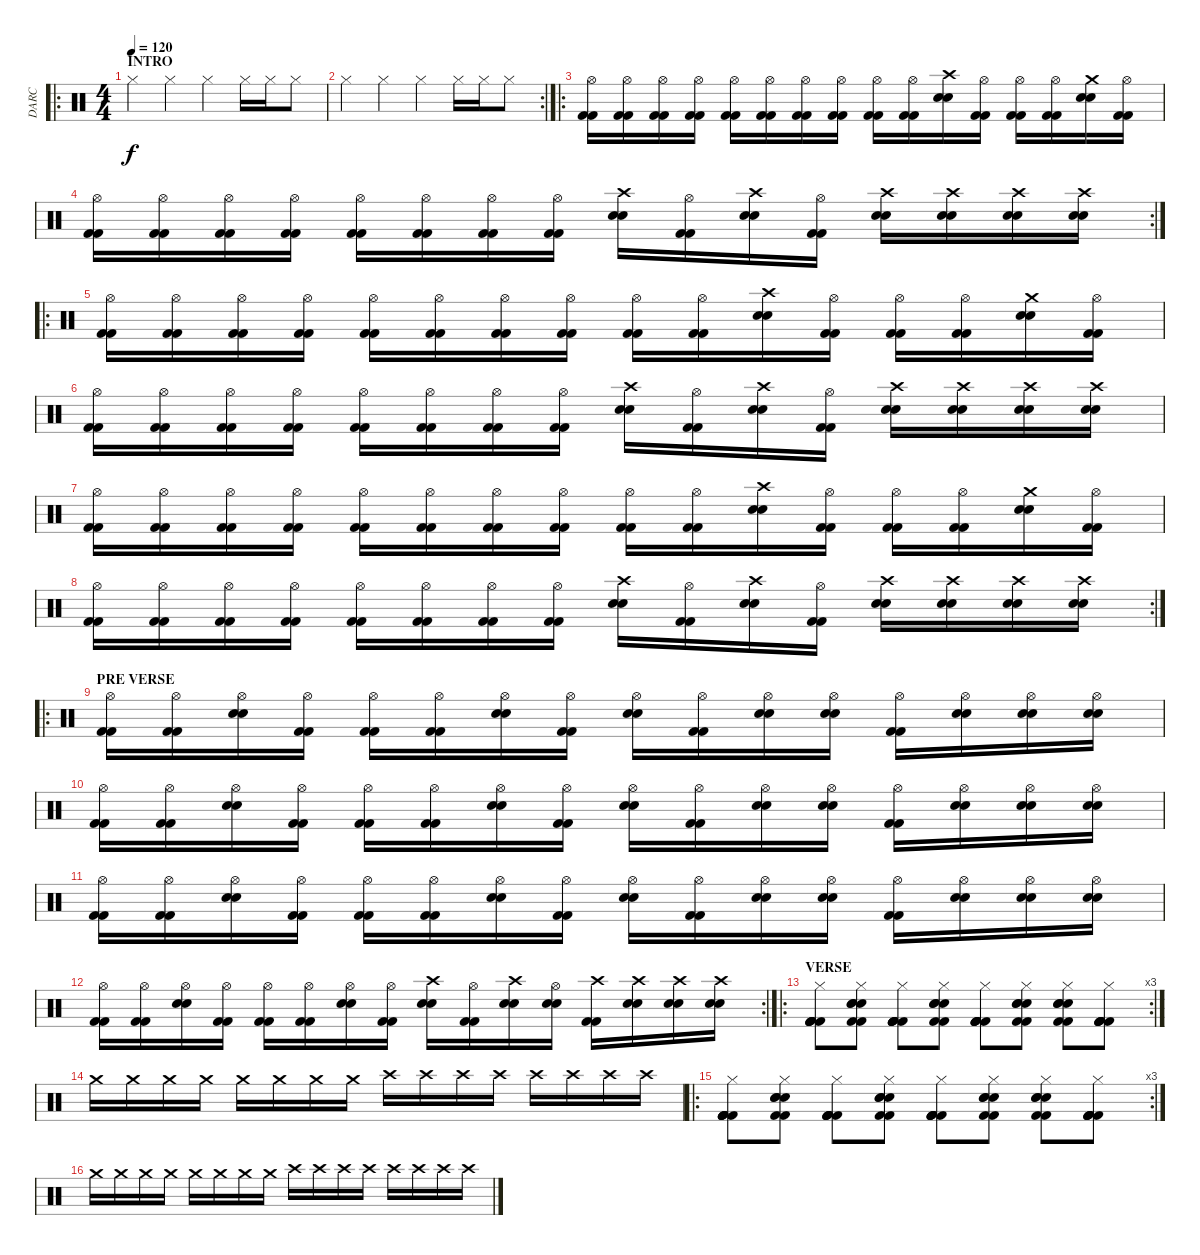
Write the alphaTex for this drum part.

\track ("DARC" "DARC") {instrument percussion}
\staff {score}
\articulation defaults
\ro
\ts (4 4)
\section ("" "INTRO")
\tempo 120
\clef neutral
\ks c "Hi-Hat (closed)".4{dy f} "Hi-Hat (closed)".4 "Hi-Hat (closed)".4 "Hi-Hat (closed)".16 "Hi-Hat (closed)".16 "Hi-Hat (closed)".8
|
\rc 2 "Hi-Hat (closed)".4 "Hi-Hat (closed)".4 "Hi-Hat (closed)".4 "Hi-Hat (closed)".16 "Hi-Hat (closed)".16 "Hi-Hat (closed)".8
|
\ro
("Hi-Hat (open)" "Kick (hit) 2" "Kick (hit) 2").16 ("Hi-Hat (open)" "Kick (hit) 2" "Kick (hit) 2").16 ("Hi-Hat (open)" "Kick (hit) 2" "Kick (hit) 2").16 ("Hi-Hat (open)" "Kick (hit) 2" "Kick (hit) 2").16 ("Hi-Hat (open)" "Kick (hit) 2" "Kick (hit) 2").16 ("Hi-Hat (open)" "Kick (hit) 2" "Kick (hit) 2").16 ("Hi-Hat (open)" "Kick (hit) 2" "Kick (hit) 2").16 ("Hi-Hat (open)" "Kick (hit) 2" "Kick (hit) 2").16 ("Hi-Hat (open)" "Kick (hit) 2" "Kick (hit) 2").16 ("Hi-Hat (open)" "Kick (hit) 2" "Kick (hit) 2").16 ("Crash high (hit)" "Snare (hit) 2" "Snare (hit) 2").16 ("Hi-Hat (open)" "Kick (hit) 2" "Kick (hit) 2").16 ("Hi-Hat (open)" "Kick (hit) 2" "Kick (hit) 2").16 ("Hi-Hat (open)" "Kick (hit) 2" "Kick (hit) 2").16 ("Crash medium (hit)" "Snare (hit) 2" "Snare (hit) 2").16 ("Hi-Hat (open)" "Kick (hit) 2" "Kick (hit) 2").16 |
\rc 2
("Hi-Hat (open)" "Kick (hit) 2" "Kick (hit) 2").16 ("Hi-Hat (open)" "Kick (hit) 2" "Kick (hit) 2").16 ("Hi-Hat (open)" "Kick (hit) 2" "Kick (hit) 2").16 ("Hi-Hat (open)" "Kick (hit) 2" "Kick (hit) 2").16 ("Hi-Hat (open)" "Kick (hit) 2" "Kick (hit) 2").16 ("Hi-Hat (open)" "Kick (hit) 2" "Kick (hit) 2").16 ("Hi-Hat (open)" "Kick (hit) 2" "Kick (hit) 2").16 ("Hi-Hat (open)" "Kick (hit) 2" "Kick (hit) 2").16 ("Crash high (hit)" "Snare (hit) 2" "Snare (hit) 2").16 ("Hi-Hat (open)" "Kick (hit) 2" "Kick (hit) 2").16 ("Crash high (hit)" "Snare (hit) 2" "Snare (hit) 2").16 ("Hi-Hat (open)" "Kick (hit) 2" "Kick (hit) 2").16 ("Crash high (hit)" "Snare (hit) 2" "Snare (hit) 2").16 ("Crash high (hit)" "Snare (hit) 2" "Snare (hit) 2").16 ("Crash high (hit)" "Snare (hit) 2" "Snare (hit) 2").16 ("Crash high (hit)" "Snare (hit) 2" "Snare (hit) 2").16 |
\ro
("Hi-Hat (open)" "Kick (hit) 2" "Kick (hit) 2").16 ("Hi-Hat (open)" "Kick (hit) 2" "Kick (hit) 2").16 ("Hi-Hat (open)" "Kick (hit) 2" "Kick (hit) 2").16 ("Hi-Hat (open)" "Kick (hit) 2" "Kick (hit) 2").16 ("Hi-Hat (open)" "Kick (hit) 2" "Kick (hit) 2").16 ("Hi-Hat (open)" "Kick (hit) 2" "Kick (hit) 2").16 ("Hi-Hat (open)" "Kick (hit) 2" "Kick (hit) 2").16 ("Hi-Hat (open)" "Kick (hit) 2" "Kick (hit) 2").16 ("Hi-Hat (open)" "Kick (hit) 2" "Kick (hit) 2").16 ("Hi-Hat (open)" "Kick (hit) 2" "Kick (hit) 2").16 ("Crash high (hit)" "Snare (hit) 2" "Snare (hit) 2").16 ("Hi-Hat (open)" "Kick (hit) 2" "Kick (hit) 2").16 ("Hi-Hat (open)" "Kick (hit) 2" "Kick (hit) 2").16 ("Hi-Hat (open)" "Kick (hit) 2" "Kick (hit) 2").16 ("Crash medium (hit)" "Snare (hit) 2" "Snare (hit) 2").16 ("Hi-Hat (open)" "Kick (hit) 2" "Kick (hit) 2").16 |
("Hi-Hat (open)" "Kick (hit) 2" "Kick (hit) 2").16 ("Hi-Hat (open)" "Kick (hit) 2" "Kick (hit) 2").16 ("Hi-Hat (open)" "Kick (hit) 2" "Kick (hit) 2").16 ("Hi-Hat (open)" "Kick (hit) 2" "Kick (hit) 2").16 ("Hi-Hat (open)" "Kick (hit) 2" "Kick (hit) 2").16 ("Hi-Hat (open)" "Kick (hit) 2" "Kick (hit) 2").16 ("Hi-Hat (open)" "Kick (hit) 2" "Kick (hit) 2").16 ("Hi-Hat (open)" "Kick (hit) 2" "Kick (hit) 2").16 ("Crash high (hit)" "Snare (hit) 2" "Snare (hit) 2").16 ("Hi-Hat (open)" "Kick (hit) 2" "Kick (hit) 2").16 ("Crash high (hit)" "Snare (hit) 2" "Snare (hit) 2").16 ("Hi-Hat (open)" "Kick (hit) 2" "Kick (hit) 2").16 ("Crash high (hit)" "Snare (hit) 2" "Snare (hit) 2").16 ("Crash high (hit)" "Snare (hit) 2" "Snare (hit) 2").16 ("Crash high (hit)" "Snare (hit) 2" "Snare (hit) 2").16 ("Crash high (hit)" "Snare (hit) 2" "Snare (hit) 2").16 |
("Hi-Hat (open)" "Kick (hit) 2" "Kick (hit) 2").16 ("Hi-Hat (open)" "Kick (hit) 2" "Kick (hit) 2").16 ("Hi-Hat (open)" "Kick (hit) 2" "Kick (hit) 2").16 ("Hi-Hat (open)" "Kick (hit) 2" "Kick (hit) 2").16 ("Hi-Hat (open)" "Kick (hit) 2" "Kick (hit) 2").16 ("Hi-Hat (open)" "Kick (hit) 2" "Kick (hit) 2").16 ("Hi-Hat (open)" "Kick (hit) 2" "Kick (hit) 2").16 ("Hi-Hat (open)" "Kick (hit) 2" "Kick (hit) 2").16 ("Hi-Hat (open)" "Kick (hit) 2" "Kick (hit) 2").16 ("Hi-Hat (open)" "Kick (hit) 2" "Kick (hit) 2").16 ("Crash high (hit)" "Snare (hit) 2" "Snare (hit) 2").16 ("Hi-Hat (open)" "Kick (hit) 2" "Kick (hit) 2").16 ("Hi-Hat (open)" "Kick (hit) 2" "Kick (hit) 2").16 ("Hi-Hat (open)" "Kick (hit) 2" "Kick (hit) 2").16 ("Crash medium (hit)" "Snare (hit) 2" "Snare (hit) 2").16 ("Hi-Hat (open)" "Kick (hit) 2" "Kick (hit) 2").16 |
\rc 2
("Hi-Hat (open)" "Kick (hit) 2" "Kick (hit) 2").16 ("Hi-Hat (open)" "Kick (hit) 2" "Kick (hit) 2").16 ("Hi-Hat (open)" "Kick (hit) 2" "Kick (hit) 2").16 ("Hi-Hat (open)" "Kick (hit) 2" "Kick (hit) 2").16 ("Hi-Hat (open)" "Kick (hit) 2" "Kick (hit) 2").16 ("Hi-Hat (open)" "Kick (hit) 2" "Kick (hit) 2").16 ("Hi-Hat (open)" "Kick (hit) 2" "Kick (hit) 2").16 ("Hi-Hat (open)" "Kick (hit) 2" "Kick (hit) 2").16 ("Crash high (hit)" "Snare (hit) 2" "Snare (hit) 2").16 ("Hi-Hat (open)" "Kick (hit) 2" "Kick (hit) 2").16 ("Crash high (hit)" "Snare (hit) 2" "Snare (hit) 2").16 ("Hi-Hat (open)" "Kick (hit) 2" "Kick (hit) 2").16 ("Crash high (hit)" "Snare (hit) 2" "Snare (hit) 2").16 ("Crash high (hit)" "Snare (hit) 2" "Snare (hit) 2").16 ("Crash high (hit)" "Snare (hit) 2" "Snare (hit) 2").16 ("Crash high (hit)" "Snare (hit) 2" "Snare (hit) 2").16 |
\ro
\section ("" "PRE VERSE")
("Hi-Hat (open)" "Kick (hit) 2" "Kick (hit) 2").16 ("Hi-Hat (open)" "Kick (hit) 2" "Kick (hit) 2").16 ("Hi-Hat (open)" "Snare (hit) 2" "Snare (hit) 2").16 ("Hi-Hat (open)" "Kick (hit) 2" "Kick (hit) 2").16 ("Hi-Hat (open)" "Kick (hit) 2" "Kick (hit) 2").16 ("Hi-Hat (open)" "Kick (hit) 2" "Kick (hit) 2").16 ("Hi-Hat (open)" "Snare (hit) 2" "Snare (hit) 2").16 ("Hi-Hat (open)" "Kick (hit) 2" "Kick (hit) 2").16 ("Hi-Hat (open)" "Snare (hit) 2" "Snare (hit) 2").16 ("Hi-Hat (open)" "Kick (hit) 2" "Kick (hit) 2").16 ("Hi-Hat (open)" "Snare (hit) 2" "Snare (hit) 2").16 ("Hi-Hat (open)" "Snare (hit) 2" "Snare (hit) 2").16 ("Hi-Hat (open)" "Kick (hit) 2" "Kick (hit) 2").16 ("Hi-Hat (open)" "Snare (hit) 2" "Snare (hit) 2").16 ("Hi-Hat (open)" "Snare (hit) 2" "Snare (hit) 2").16 ("Hi-Hat (open)" "Snare (hit) 2" "Snare (hit) 2").16 |
("Hi-Hat (open)" "Kick (hit) 2" "Kick (hit) 2").16 ("Hi-Hat (open)" "Kick (hit) 2" "Kick (hit) 2").16 ("Hi-Hat (open)" "Snare (hit) 2" "Snare (hit) 2").16 ("Hi-Hat (open)" "Kick (hit) 2" "Kick (hit) 2").16 ("Hi-Hat (open)" "Kick (hit) 2" "Kick (hit) 2").16 ("Hi-Hat (open)" "Kick (hit) 2" "Kick (hit) 2").16 ("Hi-Hat (open)" "Snare (hit) 2" "Snare (hit) 2").16 ("Hi-Hat (open)" "Kick (hit) 2" "Kick (hit) 2").16 ("Hi-Hat (open)" "Snare (hit) 2" "Snare (hit) 2").16 ("Hi-Hat (open)" "Kick (hit) 2" "Kick (hit) 2").16 ("Hi-Hat (open)" "Snare (hit) 2" "Snare (hit) 2").16 ("Hi-Hat (open)" "Snare (hit) 2" "Snare (hit) 2").16 ("Hi-Hat (open)" "Kick (hit) 2" "Kick (hit) 2").16 ("Hi-Hat (open)" "Snare (hit) 2" "Snare (hit) 2").16 ("Hi-Hat (open)" "Snare (hit) 2" "Snare (hit) 2").16 ("Hi-Hat (open)" "Snare (hit) 2" "Snare (hit) 2").16 |
("Hi-Hat (open)" "Kick (hit) 2" "Kick (hit) 2").16 ("Hi-Hat (open)" "Kick (hit) 2" "Kick (hit) 2").16 ("Hi-Hat (open)" "Snare (hit) 2" "Snare (hit) 2").16 ("Hi-Hat (open)" "Kick (hit) 2" "Kick (hit) 2").16 ("Hi-Hat (open)" "Kick (hit) 2" "Kick (hit) 2").16 ("Hi-Hat (open)" "Kick (hit) 2" "Kick (hit) 2").16 ("Hi-Hat (open)" "Snare (hit) 2" "Snare (hit) 2").16 ("Hi-Hat (open)" "Kick (hit) 2" "Kick (hit) 2").16 ("Hi-Hat (open)" "Snare (hit) 2" "Snare (hit) 2").16 ("Hi-Hat (open)" "Kick (hit) 2" "Kick (hit) 2").16 ("Hi-Hat (open)" "Snare (hit) 2" "Snare (hit) 2").16 ("Hi-Hat (open)" "Snare (hit) 2" "Snare (hit) 2").16 ("Hi-Hat (open)" "Kick (hit) 2" "Kick (hit) 2").16 ("Hi-Hat (open)" "Snare (hit) 2" "Snare (hit) 2").16 ("Hi-Hat (open)" "Snare (hit) 2" "Snare (hit) 2").16 ("Hi-Hat (open)" "Snare (hit) 2" "Snare (hit) 2").16 |
\rc 2
("Hi-Hat (open)" "Kick (hit) 2" "Kick (hit) 2").16 ("Hi-Hat (open)" "Kick (hit) 2" "Kick (hit) 2").16 ("Hi-Hat (open)" "Snare (hit) 2" "Snare (hit) 2").16 ("Hi-Hat (open)" "Kick (hit) 2" "Kick (hit) 2").16 ("Hi-Hat (open)" "Kick (hit) 2" "Kick (hit) 2").16 ("Hi-Hat (open)" "Kick (hit) 2" "Kick (hit) 2").16 ("Hi-Hat (open)" "Snare (hit) 2" "Snare (hit) 2").16 ("Hi-Hat (open)" "Kick (hit) 2" "Kick (hit) 2").16 ("Crash high (hit)" "Snare (hit) 2" "Snare (hit) 2").16 ("Hi-Hat (open)" "Kick (hit) 2" "Kick (hit) 2").16 ("Crash high (hit)" "Snare (hit) 2" "Snare (hit) 2").16 ("Hi-Hat (open)" "Snare (hit) 2" "Snare (hit) 2").16 ("Crash high (hit)" "Kick (hit) 2" "Kick (hit) 2").16 ("Crash high (hit)" "Snare (hit) 2" "Snare (hit) 2").16 ("Crash high (hit)" "Snare (hit) 2" "Snare (hit) 2").16 ("Crash high (hit)" "Snare (hit) 2" "Snare (hit) 2").16 |
\ro
\rc 3
\section ("" "VERSE")
("Kick (hit) 2" "Hi-Hat (closed)" "Kick (hit) 2" "Kick (hit) 2" "Kick (hit) 2" "Kick (hit) 2").8 ("Kick (hit) 2" "Hi-Hat (closed)" "Electric Snare (hit)" "Electric Snare (hit)" "Electric Snare (hit)" "Kick (hit) 2").8 ("Kick (hit) 2" "Hi-Hat (closed)" "Kick (hit) 2" "Kick (hit) 2" "Kick (hit) 2" "Kick (hit) 2").8 ("Kick (hit) 2" "Hi-Hat (closed)" "Electric Snare (hit)" "Electric Snare (hit)" "Electric Snare (hit)" "Kick (hit) 2").8 ("Kick (hit) 2" "Hi-Hat (closed)" "Kick (hit) 2" "Kick (hit) 2" "Kick (hit) 2" "Kick (hit) 2").8 ("Kick (hit) 2" "Hi-Hat (closed)" "Electric Snare (hit)" "Electric Snare (hit)" "Electric Snare (hit)" "Kick (hit) 2").8 ("Kick (hit) 2" "Hi-Hat (closed)" "Electric Snare (hit)" "Electric Snare (hit)" "Electric Snare (hit)" "Kick (hit) 2").8 ("Kick (hit) 2" "Hi-Hat (closed)" "Kick (hit) 2" "Kick (hit) 2" "Kick (hit) 2" "Kick (hit) 2").8 |
"Crash medium (hit)".16 "Crash medium (hit)".16 "Crash medium (hit)".16 "Crash medium (hit)".16 "Crash medium (hit)".16 "Crash medium (hit)".16 "Crash medium (hit)".16 "Crash medium (hit)".16 "Crash high (hit)".16 "Crash high (hit)".16 "Crash high (hit)".16 "Crash high (hit)".16 "Crash high (hit)".16 "Crash high (hit)".16 "Crash high (hit)".16 "Crash high (hit)".16 |
\ro
\rc 3
("Kick (hit) 2" "Hi-Hat (closed)" "Kick (hit) 2" "Kick (hit) 2" "Kick (hit) 2" "Kick (hit) 2").8 ("Kick (hit) 2" "Hi-Hat (closed)" "Electric Snare (hit)" "Electric Snare (hit)" "Electric Snare (hit)" "Kick (hit) 2").8 ("Kick (hit) 2" "Hi-Hat (closed)" "Kick (hit) 2" "Kick (hit) 2" "Kick (hit) 2" "Kick (hit) 2").8 ("Kick (hit) 2" "Hi-Hat (closed)" "Electric Snare (hit)" "Electric Snare (hit)" "Electric Snare (hit)" "Kick (hit) 2").8 ("Kick (hit) 2" "Hi-Hat (closed)" "Kick (hit) 2" "Kick (hit) 2" "Kick (hit) 2" "Kick (hit) 2").8 ("Kick (hit) 2" "Hi-Hat (closed)" "Electric Snare (hit)" "Electric Snare (hit)" "Electric Snare (hit)" "Kick (hit) 2").8 ("Kick (hit) 2" "Hi-Hat (closed)" "Electric Snare (hit)" "Electric Snare (hit)" "Electric Snare (hit)" "Kick (hit) 2").8 ("Kick (hit) 2" "Hi-Hat (closed)" "Kick (hit) 2" "Kick (hit) 2" "Kick (hit) 2" "Kick (hit) 2").8 |
"Crash medium (hit)".16 "Crash medium (hit)".16 "Crash medium (hit)".16 "Crash medium (hit)".16 "Crash medium (hit)".16 "Crash medium (hit)".16 "Crash medium (hit)".16 "Crash medium (hit)".16 "Crash high (hit)".16 "Crash high (hit)".16 "Crash high (hit)".16 "Crash high (hit)".16 "Crash high (hit)".16 "Crash high (hit)".16 "Crash high (hit)".16 "Crash high (hit)".16
